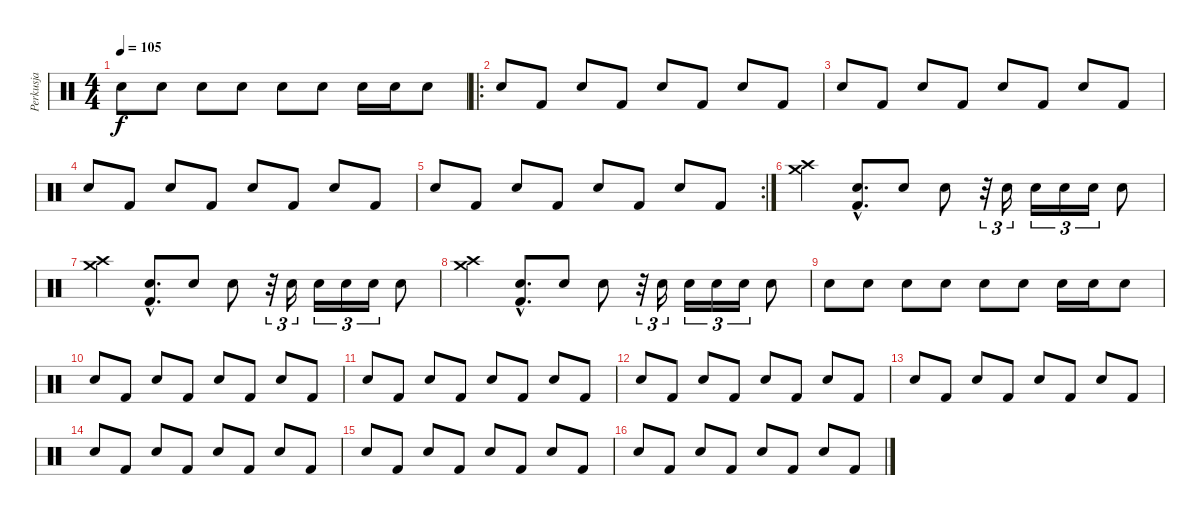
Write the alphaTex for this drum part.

\track ("Perkusja" "Perkusja") {instrument percussion}
\staff {score}
\articulation defaults
\ts (4 4)
\tempo 105
\clef neutral
\ks c "Electric Snare (hit)".8{dy f} "Electric Snare (hit)".8 "Electric Snare (hit)".8 "Snare (hit) 2".8 "Electric Snare (hit)".8 "Electric Snare (hit)".8 "Electric Snare (hit)".16 "Electric Snare (hit)".16 "Electric Snare (hit)".8
|
\ro "Electric Snare (hit)".8 "Kick (hit) 2".8 "Electric Snare (hit)".8 "Kick (hit) 2".8 "Electric Snare (hit)".8 "Kick (hit) 2".8 "Electric Snare (hit)".8 "Kick (hit) 2".8
|
"Electric Snare (hit)".8 "Kick (hit) 2".8 "Electric Snare (hit)".8 "Kick (hit) 2".8 "Electric Snare (hit)".8 "Kick (hit) 2".8 "Electric Snare (hit)".8 "Kick (hit) 2".8 |
"Electric Snare (hit)".8 "Kick (hit) 2".8 "Electric Snare (hit)".8 "Kick (hit) 2".8 "Electric Snare (hit)".8 "Kick (hit) 2".8 "Electric Snare (hit)".8 "Kick (hit) 2".8 |
\rc 2 "Electric Snare (hit)".8 "Kick (hit) 2".8 "Electric Snare (hit)".8 "Kick (hit) 2".8 "Electric Snare (hit)".8 "Kick (hit) 2".8 "Electric Snare (hit)".8 "Kick (hit) 2".8
|
("Crash high (hit)" "Crash medium (hit)").4 ("Kick (hit) 2"{hac} "Electric Snare (hit)"{hac}).8{d} "Electric Snare (hit)".8 "Electric Snare (hit)".8 r.32{tu (3 2)} "Electric Snare (hit)".16{tu (3 2)} "Electric Snare (hit)".16{tu (3 2)} "Electric Snare (hit)".16{tu (3 2)} "Electric Snare (hit)".16{tu (3 2)} "Electric Snare (hit)".8 |
("Crash high (hit)" "Crash medium (hit)").4 ("Kick (hit) 2"{hac} "Electric Snare (hit)"{hac}).8{d} "Electric Snare (hit)".8 "Electric Snare (hit)".8 r.32{tu (3 2)} "Electric Snare (hit)".16{tu (3 2)} "Electric Snare (hit)".16{tu (3 2)} "Electric Snare (hit)".16{tu (3 2)} "Electric Snare (hit)".16{tu (3 2)} "Electric Snare (hit)".8 |
("Crash high (hit)" "Crash medium (hit)").4 ("Kick (hit) 2"{hac} "Electric Snare (hit)"{hac}).8{d} "Electric Snare (hit)".8 "Electric Snare (hit)".8 r.32{tu (3 2)} "Electric Snare (hit)".16{tu (3 2)} "Electric Snare (hit)".16{tu (3 2)} "Electric Snare (hit)".16{tu (3 2)} "Electric Snare (hit)".16{tu (3 2)} "Electric Snare (hit)".8 |
"Electric Snare (hit)".8 "Electric Snare (hit)".8 "Electric Snare (hit)".8 "Snare (hit) 2".8 "Electric Snare (hit)".8 "Electric Snare (hit)".8 "Electric Snare (hit)".16 "Electric Snare (hit)".16 "Electric Snare (hit)".8 |
"Electric Snare (hit)".8 "Kick (hit) 2".8 "Electric Snare (hit)".8 "Kick (hit) 2".8 "Electric Snare (hit)".8 "Kick (hit) 2".8 "Electric Snare (hit)".8 "Kick (hit) 2".8 |
"Electric Snare (hit)".8 "Kick (hit) 2".8 "Electric Snare (hit)".8 "Kick (hit) 2".8 "Electric Snare (hit)".8 "Kick (hit) 2".8 "Electric Snare (hit)".8 "Kick (hit) 2".8 |
"Electric Snare (hit)".8 "Kick (hit) 2".8 "Electric Snare (hit)".8 "Kick (hit) 2".8 "Electric Snare (hit)".8 "Kick (hit) 2".8 "Electric Snare (hit)".8 "Kick (hit) 2".8 |
"Electric Snare (hit)".8 "Kick (hit) 2".8 "Electric Snare (hit)".8 "Kick (hit) 2".8 "Electric Snare (hit)".8 "Kick (hit) 2".8 "Electric Snare (hit)".8 "Kick (hit) 2".8 |
"Electric Snare (hit)".8 "Kick (hit) 2".8 "Electric Snare (hit)".8 "Kick (hit) 2".8 "Electric Snare (hit)".8 "Kick (hit) 2".8 "Electric Snare (hit)".8 "Kick (hit) 2".8 |
"Electric Snare (hit)".8 "Kick (hit) 2".8 "Electric Snare (hit)".8 "Kick (hit) 2".8 "Electric Snare (hit)".8 "Kick (hit) 2".8 "Electric Snare (hit)".8 "Kick (hit) 2".8 |
"Electric Snare (hit)".8 "Kick (hit) 2".8 "Electric Snare (hit)".8 "Kick (hit) 2".8 "Electric Snare (hit)".8 "Kick (hit) 2".8 "Electric Snare (hit)".8 "Kick (hit) 2".8
